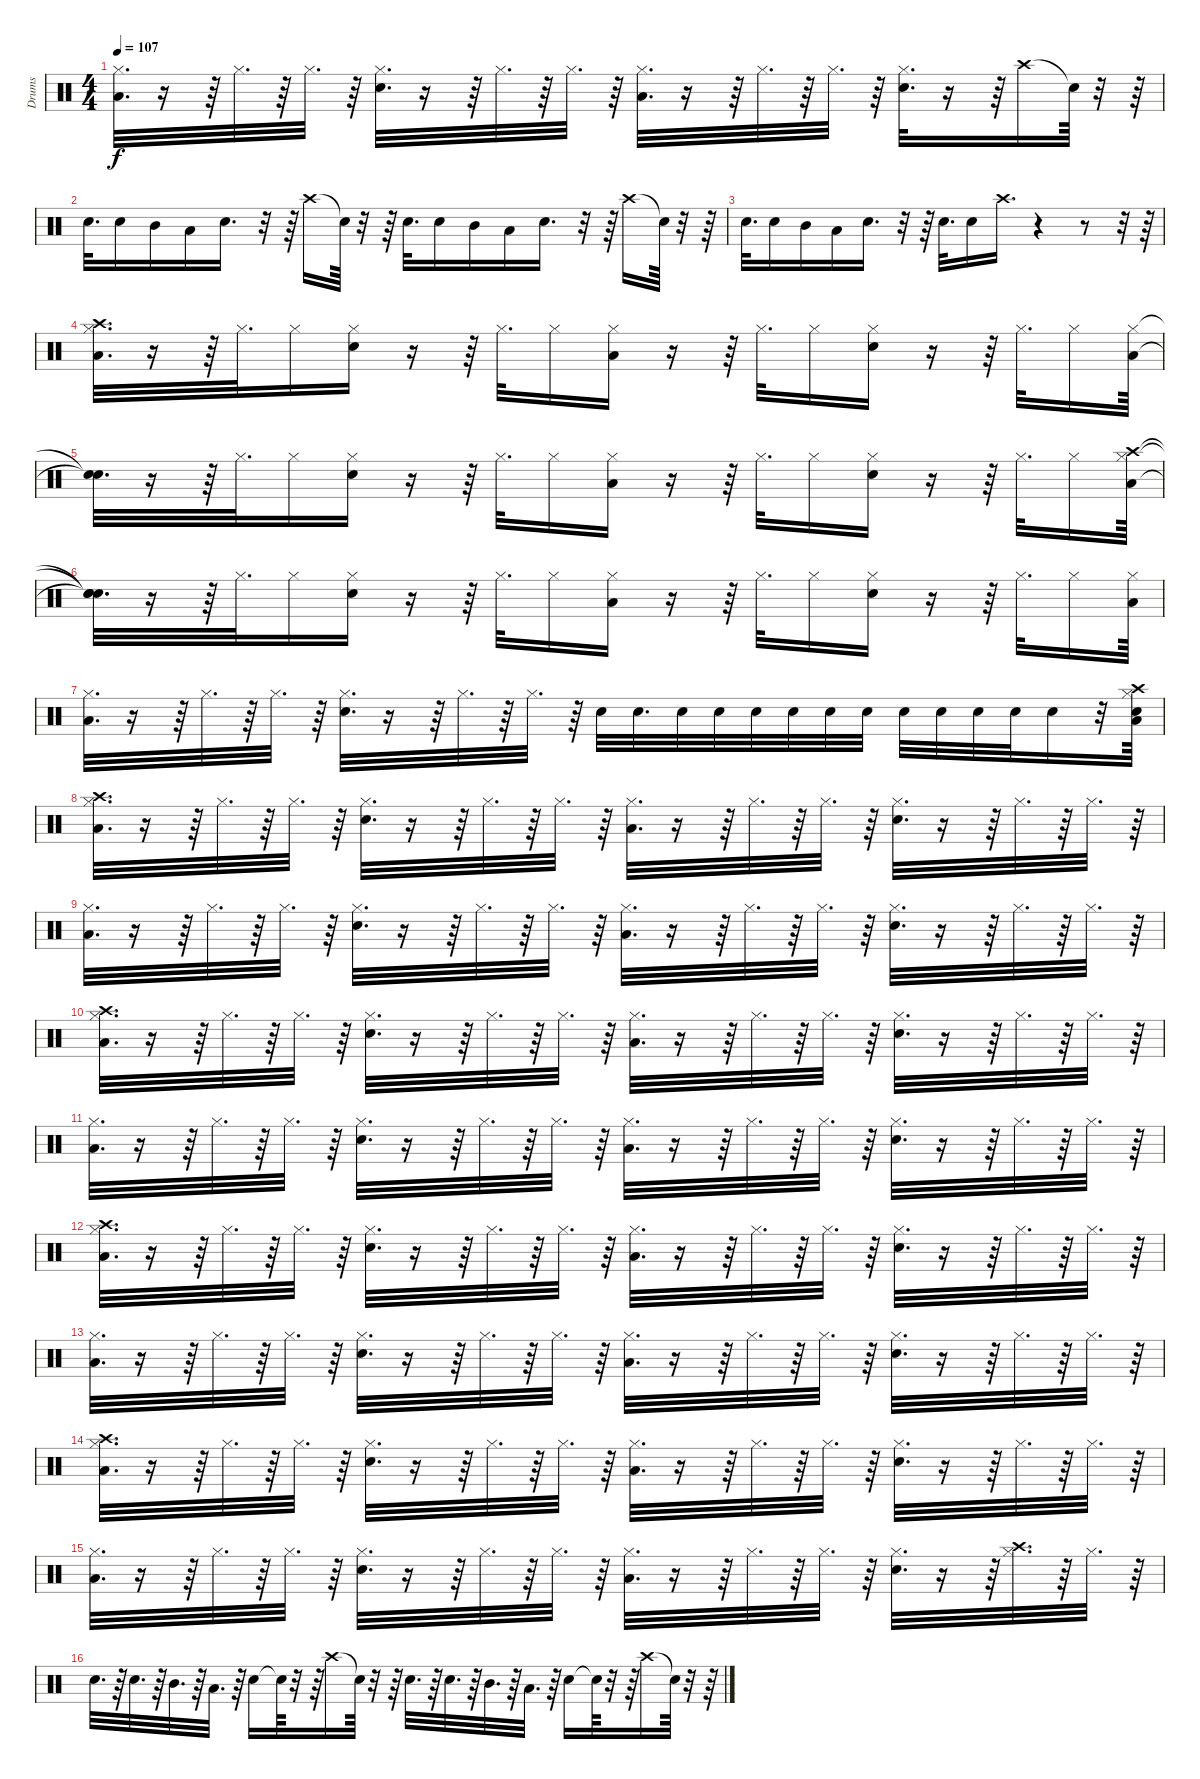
\track ("Drums" "Drums") {instrument percussion}
\staff {score}
\articulation defaults
\ts (4 4)
\tempo 107
\clef neutral
\ks c
("Hi-Hat (closed)" "Low Tom (hit)").32{d dy f} r.16 r.64 "Hi-Hat (closed)".32{d} r.64 "Hi-Hat (closed)".32{d} r.64 ("Hi-Hat (closed)" "Snare (hit) 2").32{d} r.16 r.64 "Hi-Hat (closed)".32{d} r.64 "Hi-Hat (closed)".32{d} r.64 ("Hi-Hat (closed)" "Low Tom (hit)").32{d} r.16 r.64 "Hi-Hat (closed)".32{d} r.64 "Hi-Hat (closed)".32{d} r.64 ("Hi-Hat (closed)" "Snare (hit) 2").32{d} r.16 r.64 "Crash high (hit)".16 "Snare (hit)"{t}.64 r.32 r.64 |
"Snare (hit) 2".32{d} "Snare (hit) 2".16 "Mid Tom (hit)".16 "Low Tom (hit)".16 "Snare (hit) 2".16{d} r.32 r.64 "Crash high (hit)".16 "Snare (hit)"{t}.64 r.32 r.64 "Snare (hit) 2".32{d} "Snare (hit) 2".16 "Mid Tom (hit)".16 "Low Tom (hit)".16 "Snare (hit) 2".16{d} r.32 r.64 "Crash high (hit)".16 "Snare (hit)"{t}.64 r.32 r.64 |
"Snare (hit) 2".32{d} "Snare (hit) 2".16 "Mid Tom (hit)".16 "Low Tom (hit)".16 "Snare (hit) 2".16{d} r.32 r.64 "Snare (hit) 2".32{d} "Snare (hit) 2".16 "Crash high (hit)".16{d} r.4 r.8 r.32 r.64 |
("Hi-Hat (closed)" "Crash high (hit)" "Low Tom (hit)").32{d} r.16 r.64 "Hi-Hat (closed)".32{d} "Hi-Hat (closed)".16 ("Hi-Hat (closed)" "Snare (hit) 2").16 r.16 r.64 "Hi-Hat (closed)".32{d} "Hi-Hat (closed)".16 ("Hi-Hat (closed)" "Low Tom (hit)").16 r.16 r.64 "Hi-Hat (closed)".32{d} "Hi-Hat (closed)".16 ("Hi-Hat (closed)" "Snare (hit) 2").16 r.16 r.64 "Hi-Hat (closed)".32{d} "Hi-Hat (closed)".16 ("Hi-Hat (closed)" "Low Tom (hit)").64 |
("Snare (hit)"{t} "Snare (hit)"{t}).32{d} r.16 r.64 "Hi-Hat (closed)".32{d} "Hi-Hat (closed)".16 ("Hi-Hat (closed)" "Snare (hit) 2").16 r.16 r.64 "Hi-Hat (closed)".32{d} "Hi-Hat (closed)".16 ("Hi-Hat (closed)" "Low Tom (hit)").16 r.16 r.64 "Hi-Hat (closed)".32{d} "Hi-Hat (closed)".16 ("Hi-Hat (closed)" "Snare (hit) 2").16 r.16 r.64 "Hi-Hat (closed)".32{d} "Hi-Hat (closed)".16 ("Hi-Hat (closed)" "Crash high (hit)" "Low Tom (hit)").64 |
("Snare (hit)"{t} "Snare (hit)"{t} "Snare (hit)"{t}).32{d} r.16 r.64 "Hi-Hat (closed)".32{d} "Hi-Hat (closed)".16 ("Hi-Hat (closed)" "Snare (hit) 2").16 r.16 r.64 "Hi-Hat (closed)".32{d} "Hi-Hat (closed)".16 ("Hi-Hat (closed)" "Low Tom (hit)").16 r.16 r.64 "Hi-Hat (closed)".32{d} "Hi-Hat (closed)".16 ("Hi-Hat (closed)" "Snare (hit) 2").16 r.16 r.64 "Hi-Hat (closed)".32{d} "Hi-Hat (closed)".16 ("Hi-Hat (closed)" "Low Tom (hit)").64 |
("Hi-Hat (closed)" "Low Tom (hit)").32{d} r.16 r.64 "Hi-Hat (closed)".32{d} r.64 "Hi-Hat (closed)".32{d} r.64 ("Hi-Hat (closed)" "Snare (hit) 2").32{d} r.16 r.64 "Hi-Hat (closed)".32{d} r.64 "Hi-Hat (closed)".32{d} r.64 "Snare (hit) 2".32 "Snare (hit) 2".32{d} "Snare (hit) 2".32 "Snare (hit) 2".32 "Snare (hit) 2".32 "Snare (hit) 2".32 "Snare (hit) 2".32 "Snare (hit) 2".32 "Snare (hit) 2".32 "Snare (hit) 2".32 "Snare (hit) 2".32 "Snare (hit) 2".32 "Snare (hit) 2".16 r.32 ("Hi-Hat (closed)" "Crash high (hit)" "Low Tom (hit)" "Snare (hit) 2").64 |
("Hi-Hat (closed)" "Crash high (hit)" "Low Tom (hit)").32{d} r.16 r.64 "Hi-Hat (closed)".32{d} r.64 "Hi-Hat (closed)".32{d} r.64 ("Hi-Hat (closed)" "Snare (hit) 2").32{d} r.16 r.64 "Hi-Hat (closed)".32{d} r.64 "Hi-Hat (closed)".32{d} r.64 ("Hi-Hat (closed)" "Low Tom (hit)").32{d} r.16 r.64 "Hi-Hat (closed)".32{d} r.64 "Hi-Hat (closed)".32{d} r.64 ("Hi-Hat (closed)" "Snare (hit) 2").32{d} r.16 r.64 "Hi-Hat (closed)".32{d} r.64 "Hi-Hat (closed)".32{d} r.64 |
("Hi-Hat (closed)" "Low Tom (hit)").32{d} r.16 r.64 "Hi-Hat (closed)".32{d} r.64 "Hi-Hat (closed)".32{d} r.64 ("Hi-Hat (closed)" "Snare (hit) 2").32{d} r.16 r.64 "Hi-Hat (closed)".32{d} r.64 "Hi-Hat (closed)".32{d} r.64 ("Hi-Hat (closed)" "Low Tom (hit)").32{d} r.16 r.64 "Hi-Hat (closed)".32{d} r.64 "Hi-Hat (closed)".32{d} r.64 ("Hi-Hat (closed)" "Snare (hit) 2").32{d} r.16 r.64 "Hi-Hat (closed)".32{d} r.64 "Hi-Hat (closed)".32{d} r.64 |
("Hi-Hat (closed)" "Crash high (hit)" "Low Tom (hit)").32{d} r.16 r.64 "Hi-Hat (closed)".32{d} r.64 "Hi-Hat (closed)".32{d} r.64 ("Hi-Hat (closed)" "Snare (hit) 2").32{d} r.16 r.64 "Hi-Hat (closed)".32{d} r.64 "Hi-Hat (closed)".32{d} r.64 ("Hi-Hat (closed)" "Low Tom (hit)").32{d} r.16 r.64 "Hi-Hat (closed)".32{d} r.64 "Hi-Hat (closed)".32{d} r.64 ("Hi-Hat (closed)" "Snare (hit) 2").32{d} r.16 r.64 "Hi-Hat (closed)".32{d} r.64 "Hi-Hat (closed)".32{d} r.64 |
("Hi-Hat (closed)" "Low Tom (hit)").32{d} r.16 r.64 "Hi-Hat (closed)".32{d} r.64 "Hi-Hat (closed)".32{d} r.64 ("Hi-Hat (closed)" "Snare (hit) 2").32{d} r.16 r.64 "Hi-Hat (closed)".32{d} r.64 "Hi-Hat (closed)".32{d} r.64 ("Hi-Hat (closed)" "Low Tom (hit)").32{d} r.16 r.64 "Hi-Hat (closed)".32{d} r.64 "Hi-Hat (closed)".32{d} r.64 ("Hi-Hat (closed)" "Snare (hit) 2").32{d} r.16 r.64 "Hi-Hat (closed)".32{d} r.64 "Hi-Hat (closed)".32{d} r.64 |
("Hi-Hat (closed)" "Crash high (hit)" "Low Tom (hit)").32{d} r.16 r.64 "Hi-Hat (closed)".32{d} r.64 "Hi-Hat (closed)".32{d} r.64 ("Hi-Hat (closed)" "Snare (hit) 2").32{d} r.16 r.64 "Hi-Hat (closed)".32{d} r.64 "Hi-Hat (closed)".32{d} r.64 ("Hi-Hat (closed)" "Low Tom (hit)").32{d} r.16 r.64 "Hi-Hat (closed)".32{d} r.64 "Hi-Hat (closed)".32{d} r.64 ("Hi-Hat (closed)" "Snare (hit) 2").32{d} r.16 r.64 "Hi-Hat (closed)".32{d} r.64 "Hi-Hat (closed)".32{d} r.64 |
("Hi-Hat (closed)" "Low Tom (hit)").32{d} r.16 r.64 "Hi-Hat (closed)".32{d} r.64 "Hi-Hat (closed)".32{d} r.64 ("Hi-Hat (closed)" "Snare (hit) 2").32{d} r.16 r.64 "Hi-Hat (closed)".32{d} r.64 "Hi-Hat (closed)".32{d} r.64 ("Hi-Hat (closed)" "Low Tom (hit)").32{d} r.16 r.64 "Hi-Hat (closed)".32{d} r.64 "Hi-Hat (closed)".32{d} r.64 ("Hi-Hat (closed)" "Snare (hit) 2").32{d} r.16 r.64 "Hi-Hat (closed)".32{d} r.64 "Hi-Hat (closed)".32{d} r.64 |
("Hi-Hat (closed)" "Crash high (hit)" "Low Tom (hit)").32{d} r.16 r.64 "Hi-Hat (closed)".32{d} r.64 "Hi-Hat (closed)".32{d} r.64 ("Hi-Hat (closed)" "Snare (hit) 2").32{d} r.16 r.64 "Hi-Hat (closed)".32{d} r.64 "Hi-Hat (closed)".32{d} r.64 ("Hi-Hat (closed)" "Low Tom (hit)").32{d} r.16 r.64 "Hi-Hat (closed)".32{d} r.64 "Hi-Hat (closed)".32{d} r.64 ("Hi-Hat (closed)" "Snare (hit) 2").32{d} r.16 r.64 "Hi-Hat (closed)".32{d} r.64 "Hi-Hat (closed)".32{d} r.64 |
("Hi-Hat (closed)" "Low Tom (hit)").32{d} r.16 r.64 "Hi-Hat (closed)".32{d} r.64 "Hi-Hat (closed)".32{d} r.64 ("Hi-Hat (closed)" "Snare (hit) 2").32{d} r.16 r.64 "Hi-Hat (closed)".32{d} r.64 "Hi-Hat (closed)".32{d} r.64 ("Hi-Hat (closed)" "Low Tom (hit)").32{d} r.16 r.64 "Hi-Hat (closed)".32{d} r.64 "Hi-Hat (closed)".32{d} r.64 ("Hi-Hat (closed)" "Snare (hit) 2").32{d} r.16 r.64 ("Crash high (hit)" "Hi-Hat (closed)").32{d} r.64 "Hi-Hat (closed)".32{d} r.64 |
"Snare (hit) 2".32{d} r.64 "Snare (hit) 2".32{d} r.64 "Mid Tom (hit)".32{d} r.64 "Low Tom (hit)".32{d} r.64 "Snare (hit) 2".16 "Snare (hit)"{t}.64 r.32 r.64 "Crash high (hit)".16 "Snare (hit)"{t}.64 r.32 r.64 "Snare (hit) 2".32{d} r.64 "Snare (hit) 2".32{d} r.64 "Mid Tom (hit)".32{d} r.64 "Low Tom (hit)".32{d} r.64 "Snare (hit) 2".16 "Snare (hit)"{t}.64 r.32 r.64 "Crash high (hit)".16 "Snare (hit)"{t}.64 r.32 r.64
